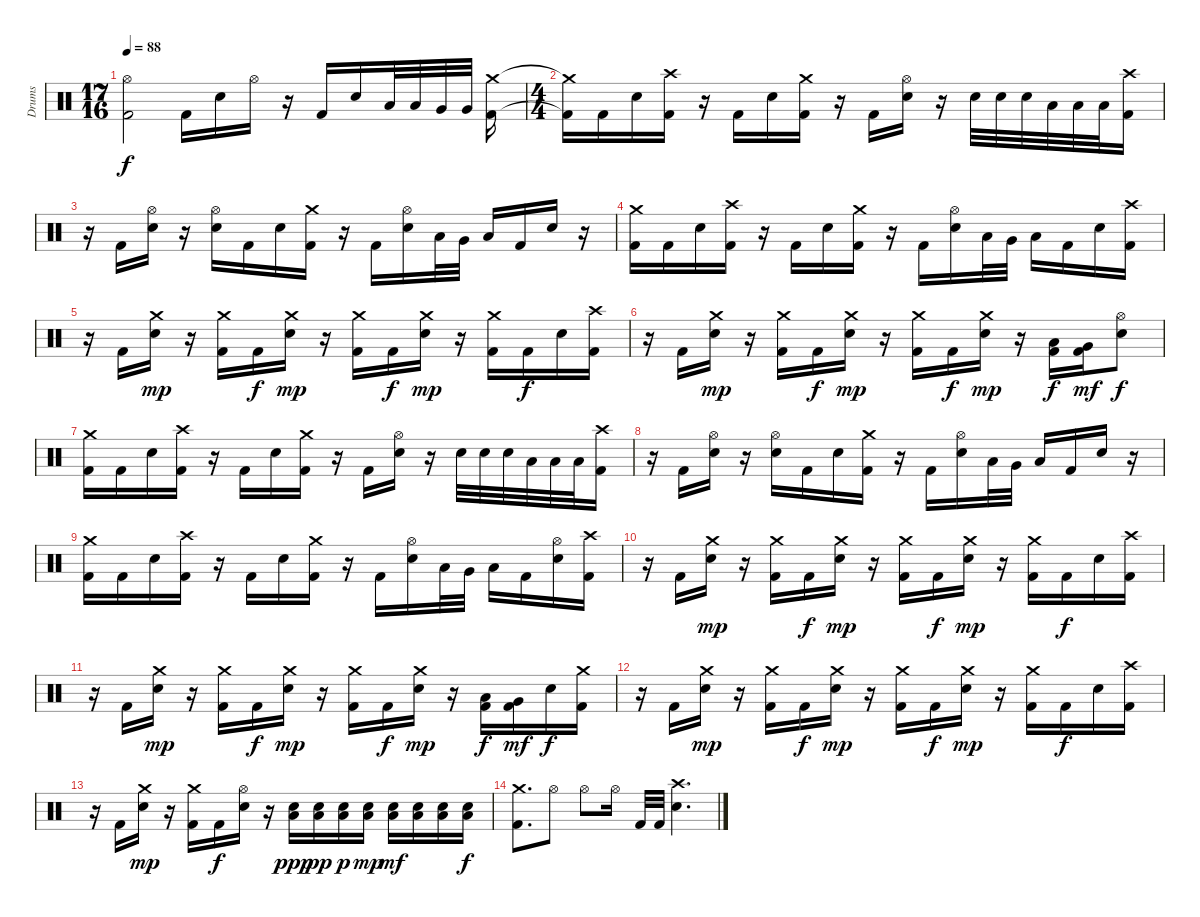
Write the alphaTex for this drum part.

\track ("Drums" "Drums") {instrument percussion}
\staff {score}
\articulation defaults
\ts (17 16)
\tempo 88
\clef neutral
\ks c
("Hi-Hat (open)" "Kick (hit) 2").2{dy f} "Kick (hit) 2".16 "Electric Snare (hit)".16 "Hi-Hat (open)".16 r.16 "Kick (hit) 2".16 "Electric Snare (hit)".16 "Low Tom (hit)".32 "Low Tom (hit)".32 "Very Low Tom (hit)".32 "Very Low Tom (hit)".32 ("Crash medium (hit)" "Kick (hit) 2").16 |
\ts (4 4)
("Crash medium (hit)"{t} "Kick (hit) 2"{t}).16 "Kick (hit) 2".16 "Electric Snare (hit)".16 ("Crash high (hit)" "Kick (hit) 2").16 r.16 "Kick (hit) 2".16 "Electric Snare (hit)".16 ("Crash medium (hit)" "Kick (hit) 2").16 r.16 "Kick (hit) 2".16 ("Hi-Hat (open)" "Electric Snare (hit)").16 r.16 "Electric Snare (hit)".32 "Electric Snare (hit)".32 "Electric Snare (hit)".32 "Low Tom (hit)".32 "Low Tom (hit)".32 "Low Tom (hit)".32 ("Crash high (hit)" "Kick (hit) 2").16 |
r.16 "Kick (hit) 2".16 ("Hi-Hat (open)" "Electric Snare (hit)").16 r.16 ("Hi-Hat (open)" "Electric Snare (hit)").16 "Kick (hit) 2".16 "Electric Snare (hit)".16 ("Crash medium (hit)" "Kick (hit) 2").16 r.16 "Kick (hit) 2".16 ("Hi-Hat (open)" "Electric Snare (hit)").16 "Low Tom (hit)".32 "Very Low Tom (hit)".32 "Low Floor Tom (hit)".16 "Kick (hit) 2".16 "Electric Snare (hit)".16 r.16 |
("Crash medium (hit)" "Kick (hit) 2").16 "Kick (hit) 2".16 "Electric Snare (hit)".16 ("Crash high (hit)" "Kick (hit) 2").16 r.16 "Kick (hit) 2".16 "Electric Snare (hit)".16 ("Crash medium (hit)" "Kick (hit) 2").16 r.16 "Kick (hit) 2".16 ("Hi-Hat (open)" "Electric Snare (hit)").16 "Low Tom (hit)".32 "Very Low Tom (hit)".32 "Low Floor Tom (hit)".16 "Kick (hit) 2".16 "Electric Snare (hit)".16 ("Crash high (hit)" "Kick (hit) 2").16 |
r.16 "Kick (hit) 2".16 ("Crash medium (hit)" "Electric Snare (hit)").16{dy mp} r.16 ("Crash medium (hit)" "Kick (hit) 2").16 "Kick (hit) 2".16{dy f} ("Crash medium (hit)" "Electric Snare (hit)").16{dy mp} r.16 ("Crash medium (hit)" "Kick (hit) 2").16 "Kick (hit) 2".16{dy f} ("Crash medium (hit)" "Electric Snare (hit)").16{dy mp} r.16 ("Crash medium (hit)" "Kick (hit) 2").16 "Kick (hit) 2".16{dy f} "Electric Snare (hit)".16 ("Crash high (hit)" "Kick (hit) 2").16 |
r.16 "Kick (hit) 2".16 ("Crash medium (hit)" "Electric Snare (hit)").16{dy mp} r.16 ("Crash medium (hit)" "Kick (hit) 2").16 "Kick (hit) 2".16{dy f} ("Crash medium (hit)" "Electric Snare (hit)").16{dy mp} r.16 ("Crash medium (hit)" "Kick (hit) 2").16 "Kick (hit) 2".16{dy f} ("Crash medium (hit)" "Electric Snare (hit)").16{dy mp} r.16 ("Low Tom (hit)" "Kick (hit) 2").16{dy f} ("Very Low Tom (hit)" "Kick (hit) 2").16{dy mf} ("Hi-Hat (open)" "Electric Snare (hit)").8{dy f} |
("Crash medium (hit)" "Kick (hit) 2").16 "Kick (hit) 2".16 "Electric Snare (hit)".16 ("Crash high (hit)" "Kick (hit) 2").16 r.16 "Kick (hit) 2".16 "Electric Snare (hit)".16 ("Crash medium (hit)" "Kick (hit) 2").16 r.16 "Kick (hit) 2".16 ("Hi-Hat (open)" "Electric Snare (hit)").16 r.16 "Electric Snare (hit)".32 "Electric Snare (hit)".32 "Electric Snare (hit)".32 "Low Tom (hit)".32 "Low Tom (hit)".32 "Low Tom (hit)".32 ("Crash high (hit)" "Kick (hit) 2").16 |
r.16 "Kick (hit) 2".16 ("Hi-Hat (open)" "Electric Snare (hit)").16 r.16 ("Hi-Hat (open)" "Electric Snare (hit)").16 "Kick (hit) 2".16 "Electric Snare (hit)".16 ("Crash medium (hit)" "Kick (hit) 2").16 r.16 "Kick (hit) 2".16 ("Hi-Hat (open)" "Electric Snare (hit)").16 "Low Tom (hit)".32 "Very Low Tom (hit)".32 "Low Floor Tom (hit)".16 "Kick (hit) 2".16 "Electric Snare (hit)".16 r.16 |
("Crash medium (hit)" "Kick (hit) 2").16 "Kick (hit) 2".16 "Electric Snare (hit)".16 ("Crash high (hit)" "Kick (hit) 2").16 r.16 "Kick (hit) 2".16 "Electric Snare (hit)".16 ("Crash medium (hit)" "Kick (hit) 2").16 r.16 "Kick (hit) 2".16 ("Hi-Hat (open)" "Electric Snare (hit)").16 "Low Tom (hit)".32 "Very Low Tom (hit)".32 "Low Floor Tom (hit)".16 "Kick (hit) 2".16 ("Hi-Hat (open)" "Electric Snare (hit)").16 ("Crash high (hit)" "Kick (hit) 2").16 |
r.16 "Kick (hit) 2".16 ("Crash medium (hit)" "Electric Snare (hit)").16{dy mp} r.16 ("Crash medium (hit)" "Kick (hit) 2").16 "Kick (hit) 2".16{dy f} ("Crash medium (hit)" "Electric Snare (hit)").16{dy mp} r.16 ("Crash medium (hit)" "Kick (hit) 2").16 "Kick (hit) 2".16{dy f} ("Crash medium (hit)" "Electric Snare (hit)").16{dy mp} r.16 ("Crash medium (hit)" "Kick (hit) 2").16 "Kick (hit) 2".16{dy f} "Electric Snare (hit)".16 ("Crash high (hit)" "Kick (hit) 2").16 |
r.16 "Kick (hit) 2".16 ("Crash medium (hit)" "Electric Snare (hit)").16{dy mp} r.16 ("Crash medium (hit)" "Kick (hit) 2").16 "Kick (hit) 2".16{dy f} ("Crash medium (hit)" "Electric Snare (hit)").16{dy mp} r.16 ("Crash medium (hit)" "Kick (hit) 2").16 "Kick (hit) 2".16{dy f} ("Crash medium (hit)" "Electric Snare (hit)").16{dy mp} r.16 ("Low Tom (hit)" "Kick (hit) 2").16{dy f} ("Very Low Tom (hit)" "Kick (hit) 2").16{dy mf} "Electric Snare (hit)".16{dy f} ("Crash medium (hit)" "Kick (hit) 2").16 |
r.16 "Kick (hit) 2".16 ("Crash medium (hit)" "Electric Snare (hit)").16{dy mp} r.16 ("Crash medium (hit)" "Kick (hit) 2").16 "Kick (hit) 2".16{dy f} ("Crash medium (hit)" "Electric Snare (hit)").16{dy mp} r.16 ("Crash medium (hit)" "Kick (hit) 2").16 "Kick (hit) 2".16{dy f} ("Crash medium (hit)" "Electric Snare (hit)").16{dy mp} r.16 ("Crash medium (hit)" "Kick (hit) 2").16 "Kick (hit) 2".16{dy f} "Electric Snare (hit)".16 ("Crash high (hit)" "Kick (hit) 2").16 |
r.16 "Kick (hit) 2".16 ("Crash medium (hit)" "Electric Snare (hit)").16{dy mp} r.16 ("Crash medium (hit)" "Kick (hit) 2").16 "Kick (hit) 2".16{dy f} ("Hi-Hat (open)" "Electric Snare (hit)").16 r.16 ("Electric Snare (hit)" "Low Tom (hit)").16{dy ppp} ("Low Tom (hit)" "Electric Snare (hit)").16{dy pp} ("Low Tom (hit)" "Electric Snare (hit)").16{dy p} ("Low Tom (hit)" "Electric Snare (hit)").16{dy mp} ("Low Tom (hit)" "Electric Snare (hit)").16{dy mf} ("Low Tom (hit)" "Electric Snare (hit)").16 ("Low Tom (hit)" "Electric Snare (hit)").16 ("Low Tom (hit)" "Electric Snare (hit)").16{dy f} |
("Crash medium (hit)" "Kick (hit) 2").8{d} "Hi-Hat (open)".8 "Hi-Hat (open)".8 "Hi-Hat (open)".16 "Kick (hit) 2".32 "Kick (hit) 2".32 ("Crash high (hit)" "Electric Snare (hit)").4{d}
